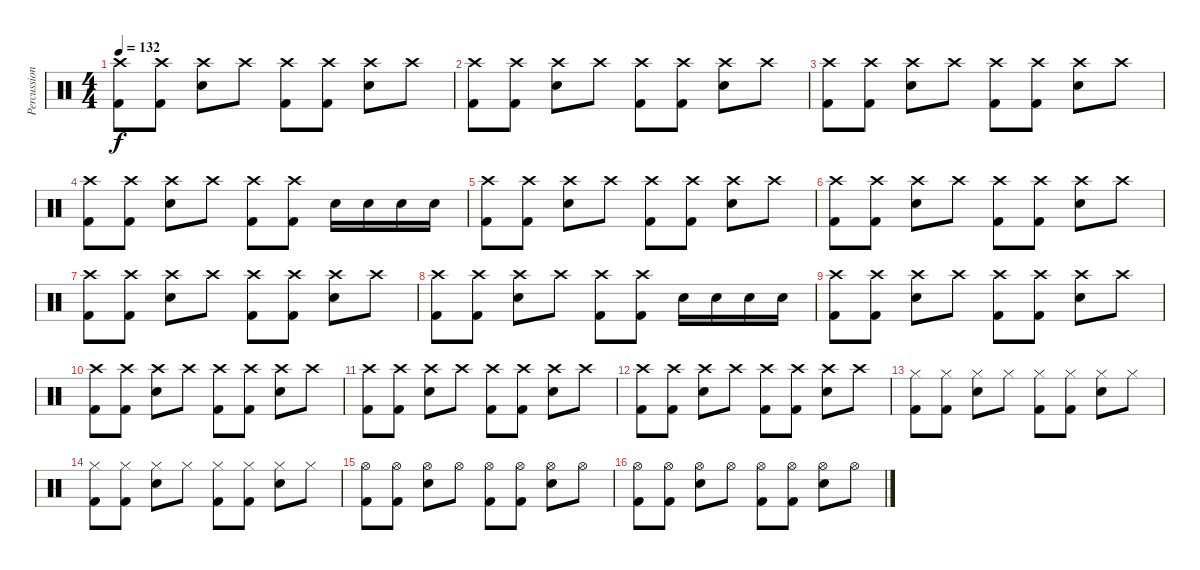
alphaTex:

\track ("Percussion" "Percussion") {instrument percussion}
\staff {score}
\articulation defaults
\ts (4 4)
\tempo 132
\clef neutral
\ks c
("Crash high (hit)" "Kick (hit) 2").8{dy f} ("Crash high (hit)" "Kick (hit) 2").8 ("Crash high (hit)" "Electric Snare (hit)").8 "Crash high (hit)".8 ("Crash high (hit)" "Kick (hit) 2").8 ("Crash high (hit)" "Kick (hit) 2").8 ("Crash high (hit)" "Electric Snare (hit)").8 "Crash high (hit)".8 |
("Crash high (hit)" "Kick (hit) 2").8 ("Crash high (hit)" "Kick (hit) 2").8 ("Crash high (hit)" "Electric Snare (hit)").8 "Crash high (hit)".8 ("Crash high (hit)" "Kick (hit) 2").8 ("Crash high (hit)" "Kick (hit) 2").8 ("Crash high (hit)" "Electric Snare (hit)").8 "Crash high (hit)".8 |
("Crash high (hit)" "Kick (hit) 2").8 ("Crash high (hit)" "Kick (hit) 2").8 ("Crash high (hit)" "Electric Snare (hit)").8 "Crash high (hit)".8 ("Crash high (hit)" "Kick (hit) 2").8 ("Crash high (hit)" "Kick (hit) 2").8 ("Crash high (hit)" "Electric Snare (hit)").8 "Crash high (hit)".8 |
("Crash high (hit)" "Kick (hit) 2").8 ("Crash high (hit)" "Kick (hit) 2").8 ("Crash high (hit)" "Electric Snare (hit)").8 "Crash high (hit)".8 ("Crash high (hit)" "Kick (hit) 2").8 ("Crash high (hit)" "Kick (hit) 2").8 "Electric Snare (hit)".16 "Electric Snare (hit)".16 "Electric Snare (hit)".16 "Electric Snare (hit)".16 |
("Crash high (hit)" "Kick (hit) 2").8 ("Crash high (hit)" "Kick (hit) 2").8 ("Crash high (hit)" "Electric Snare (hit)").8 "Crash high (hit)".8 ("Crash high (hit)" "Kick (hit) 2").8 ("Crash high (hit)" "Kick (hit) 2").8 ("Crash high (hit)" "Electric Snare (hit)").8 "Crash high (hit)".8 |
("Crash high (hit)" "Kick (hit) 2").8 ("Crash high (hit)" "Kick (hit) 2").8 ("Crash high (hit)" "Electric Snare (hit)").8 "Crash high (hit)".8 ("Crash high (hit)" "Kick (hit) 2").8 ("Crash high (hit)" "Kick (hit) 2").8 ("Crash high (hit)" "Electric Snare (hit)").8 "Crash high (hit)".8 |
("Crash high (hit)" "Kick (hit) 2").8 ("Crash high (hit)" "Kick (hit) 2").8 ("Crash high (hit)" "Electric Snare (hit)").8 "Crash high (hit)".8 ("Crash high (hit)" "Kick (hit) 2").8 ("Crash high (hit)" "Kick (hit) 2").8 ("Crash high (hit)" "Electric Snare (hit)").8 "Crash high (hit)".8 |
("Crash high (hit)" "Kick (hit) 2").8 ("Crash high (hit)" "Kick (hit) 2").8 ("Crash high (hit)" "Electric Snare (hit)").8 "Crash high (hit)".8 ("Crash high (hit)" "Kick (hit) 2").8 ("Crash high (hit)" "Kick (hit) 2").8 "Electric Snare (hit)".16 "Electric Snare (hit)".16 "Electric Snare (hit)".16 "Electric Snare (hit)".16 |
("Crash high (hit)" "Kick (hit) 2").8 ("Crash high (hit)" "Kick (hit) 2").8 ("Crash high (hit)" "Electric Snare (hit)").8 "Crash high (hit)".8 ("Crash high (hit)" "Kick (hit) 2").8 ("Crash high (hit)" "Kick (hit) 2").8 ("Crash high (hit)" "Electric Snare (hit)").8 "Crash high (hit)".8 |
("Crash high (hit)" "Kick (hit) 2").8 ("Crash high (hit)" "Kick (hit) 2").8 ("Crash high (hit)" "Electric Snare (hit)").8 "Crash high (hit)".8 ("Crash high (hit)" "Kick (hit) 2").8 ("Crash high (hit)" "Kick (hit) 2").8 ("Crash high (hit)" "Electric Snare (hit)").8 "Crash high (hit)".8 |
("Crash high (hit)" "Kick (hit) 2").8 ("Crash high (hit)" "Kick (hit) 2").8 ("Crash high (hit)" "Electric Snare (hit)").8 "Crash high (hit)".8 ("Crash high (hit)" "Kick (hit) 2").8 ("Crash high (hit)" "Kick (hit) 2").8 ("Crash high (hit)" "Electric Snare (hit)").8 "Crash high (hit)".8 |
("Crash high (hit)" "Kick (hit) 2").8 ("Crash high (hit)" "Kick (hit) 2").8 ("Crash high (hit)" "Electric Snare (hit)").8 "Crash high (hit)".8 ("Crash high (hit)" "Kick (hit) 2").8 ("Crash high (hit)" "Kick (hit) 2").8 ("Crash high (hit)" "Electric Snare (hit)").8 "Crash high (hit)".8 |
("Hi-Hat (closed)" "Kick (hit) 2").8 ("Hi-Hat (closed)" "Kick (hit) 2").8 ("Hi-Hat (closed)" "Electric Snare (hit)").8 "Hi-Hat (closed)".8 ("Hi-Hat (closed)" "Kick (hit) 2").8 ("Hi-Hat (closed)" "Kick (hit) 2").8 ("Hi-Hat (closed)" "Electric Snare (hit)").8 "Hi-Hat (closed)".8 |
("Hi-Hat (closed)" "Kick (hit) 2").8 ("Hi-Hat (closed)" "Kick (hit) 2").8 ("Hi-Hat (closed)" "Electric Snare (hit)").8 "Hi-Hat (closed)".8 ("Hi-Hat (closed)" "Kick (hit) 2").8 ("Hi-Hat (closed)" "Kick (hit) 2").8 ("Hi-Hat (closed)" "Electric Snare (hit)").8 "Hi-Hat (closed)".8 |
("Hi-Hat (open)" "Kick (hit) 2").8 ("Hi-Hat (open)" "Kick (hit) 2").8 ("Hi-Hat (open)" "Electric Snare (hit)").8 "Hi-Hat (open)".8 ("Hi-Hat (open)" "Kick (hit) 2").8 ("Hi-Hat (open)" "Kick (hit) 2").8 ("Hi-Hat (open)" "Electric Snare (hit)").8 "Hi-Hat (open)".8 |
("Hi-Hat (open)" "Kick (hit) 2").8 ("Hi-Hat (open)" "Kick (hit) 2").8 ("Hi-Hat (open)" "Electric Snare (hit)").8 "Hi-Hat (open)".8 ("Hi-Hat (open)" "Kick (hit) 2").8 ("Hi-Hat (open)" "Kick (hit) 2").8 ("Hi-Hat (open)" "Electric Snare (hit)").8 "Hi-Hat (open)".8
